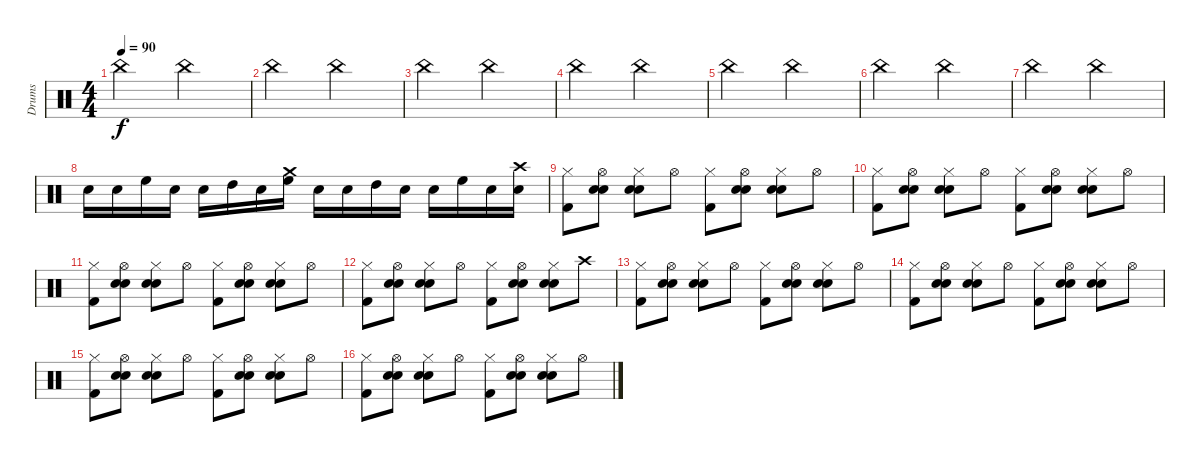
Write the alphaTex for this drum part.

\track ("Drums" "Drums") {instrument percussion}
\staff {score}
\articulation defaults
\ts (4 4)
\tempo 90
\clef neutral
\ks c "China (hit)".2{dy f} "China (hit)".2
|
"China (hit)".2 "China (hit)".2 |
"China (hit)".2 "China (hit)".2 |
"China (hit)".2 "China (hit)".2 |
"China (hit)".2 "China (hit)".2 |
"China (hit)".2 "China (hit)".2 |
"China (hit)".2 "China (hit)".2 |
"Snare (hit) 2".16 "Snare (hit) 2".16 "High Floor Tom (hit)".16 "Snare (hit) 2".16 "Snare (hit) 2".16 "High Tom (hit)".16 "Snare (hit) 2".16 ("Crash medium (hit)" "High Floor Tom (hit)").16 "Snare (hit) 2".16 "Snare (hit) 2".16 "High Tom (hit)".16 "Snare (hit) 2".16 "Snare (hit) 2".16 "High Floor Tom (hit)".16 "Snare (hit) 2".16 ("Crash high (hit)" "Snare (hit) 2").16 |
("Hi-Hat (closed)" "Kick (hit) 2").8 ("Hi-Hat (open)" "Snare (hit) 2" "Snare (hit) 2").8 ("Hi-Hat (closed)" "Snare (hit) 2" "Snare (hit) 2").8 "Hi-Hat (open)".8 ("Hi-Hat (closed)" "Kick (hit) 2").8 ("Hi-Hat (open)" "Snare (hit) 2" "Snare (hit) 2").8 ("Hi-Hat (closed)" "Snare (hit) 2" "Snare (hit) 2").8 "Hi-Hat (open)".8 |
("Hi-Hat (closed)" "Kick (hit) 2").8 ("Hi-Hat (open)" "Snare (hit) 2" "Snare (hit) 2").8 ("Hi-Hat (closed)" "Snare (hit) 2" "Snare (hit) 2").8 "Hi-Hat (open)".8 ("Hi-Hat (closed)" "Kick (hit) 2").8 ("Hi-Hat (open)" "Snare (hit) 2" "Snare (hit) 2").8 ("Hi-Hat (closed)" "Snare (hit) 2" "Snare (hit) 2").8 "Hi-Hat (open)".8 |
("Hi-Hat (closed)" "Kick (hit) 2").8 ("Hi-Hat (open)" "Snare (hit) 2" "Snare (hit) 2").8 ("Hi-Hat (closed)" "Snare (hit) 2" "Snare (hit) 2").8 "Hi-Hat (open)".8 ("Hi-Hat (closed)" "Kick (hit) 2").8 ("Hi-Hat (open)" "Snare (hit) 2" "Snare (hit) 2").8 ("Hi-Hat (closed)" "Snare (hit) 2" "Snare (hit) 2").8 "Hi-Hat (open)".8 |
("Hi-Hat (closed)" "Kick (hit) 2").8 ("Hi-Hat (open)" "Snare (hit) 2" "Snare (hit) 2").8 ("Hi-Hat (closed)" "Snare (hit) 2" "Snare (hit) 2").8 "Hi-Hat (open)".8 ("Hi-Hat (closed)" "Kick (hit) 2").8 ("Hi-Hat (open)" "Snare (hit) 2" "Snare (hit) 2").8 ("Hi-Hat (closed)" "Snare (hit) 2" "Snare (hit) 2").8 "Crash high (hit)".8 |
("Hi-Hat (closed)" "Kick (hit) 2").8 ("Hi-Hat (open)" "Snare (hit) 2" "Snare (hit) 2").8 ("Hi-Hat (closed)" "Snare (hit) 2" "Snare (hit) 2").8 "Hi-Hat (open)".8 ("Hi-Hat (closed)" "Kick (hit) 2").8 ("Hi-Hat (open)" "Snare (hit) 2" "Snare (hit) 2").8 ("Hi-Hat (closed)" "Snare (hit) 2" "Snare (hit) 2").8 "Hi-Hat (open)".8 |
("Hi-Hat (closed)" "Kick (hit) 2").8 ("Hi-Hat (open)" "Snare (hit) 2" "Snare (hit) 2").8 ("Hi-Hat (closed)" "Snare (hit) 2" "Snare (hit) 2").8 "Hi-Hat (open)".8 ("Hi-Hat (closed)" "Kick (hit) 2").8 ("Hi-Hat (open)" "Snare (hit) 2" "Snare (hit) 2").8 ("Hi-Hat (closed)" "Snare (hit) 2" "Snare (hit) 2").8 "Hi-Hat (open)".8 |
("Hi-Hat (closed)" "Kick (hit) 2").8 ("Hi-Hat (open)" "Snare (hit) 2" "Snare (hit) 2").8 ("Hi-Hat (closed)" "Snare (hit) 2" "Snare (hit) 2").8 "Hi-Hat (open)".8 ("Hi-Hat (closed)" "Kick (hit) 2").8 ("Hi-Hat (open)" "Snare (hit) 2" "Snare (hit) 2").8 ("Hi-Hat (closed)" "Snare (hit) 2" "Snare (hit) 2").8 "Hi-Hat (open)".8 |
("Hi-Hat (closed)" "Kick (hit) 2").8 ("Hi-Hat (open)" "Snare (hit) 2" "Snare (hit) 2").8 ("Hi-Hat (closed)" "Snare (hit) 2" "Snare (hit) 2").8 "Hi-Hat (open)".8 ("Hi-Hat (closed)" "Kick (hit) 2").8 ("Hi-Hat (open)" "Snare (hit) 2" "Snare (hit) 2").8 ("Hi-Hat (closed)" "Snare (hit) 2" "Snare (hit) 2").8 "Hi-Hat (open)".8
